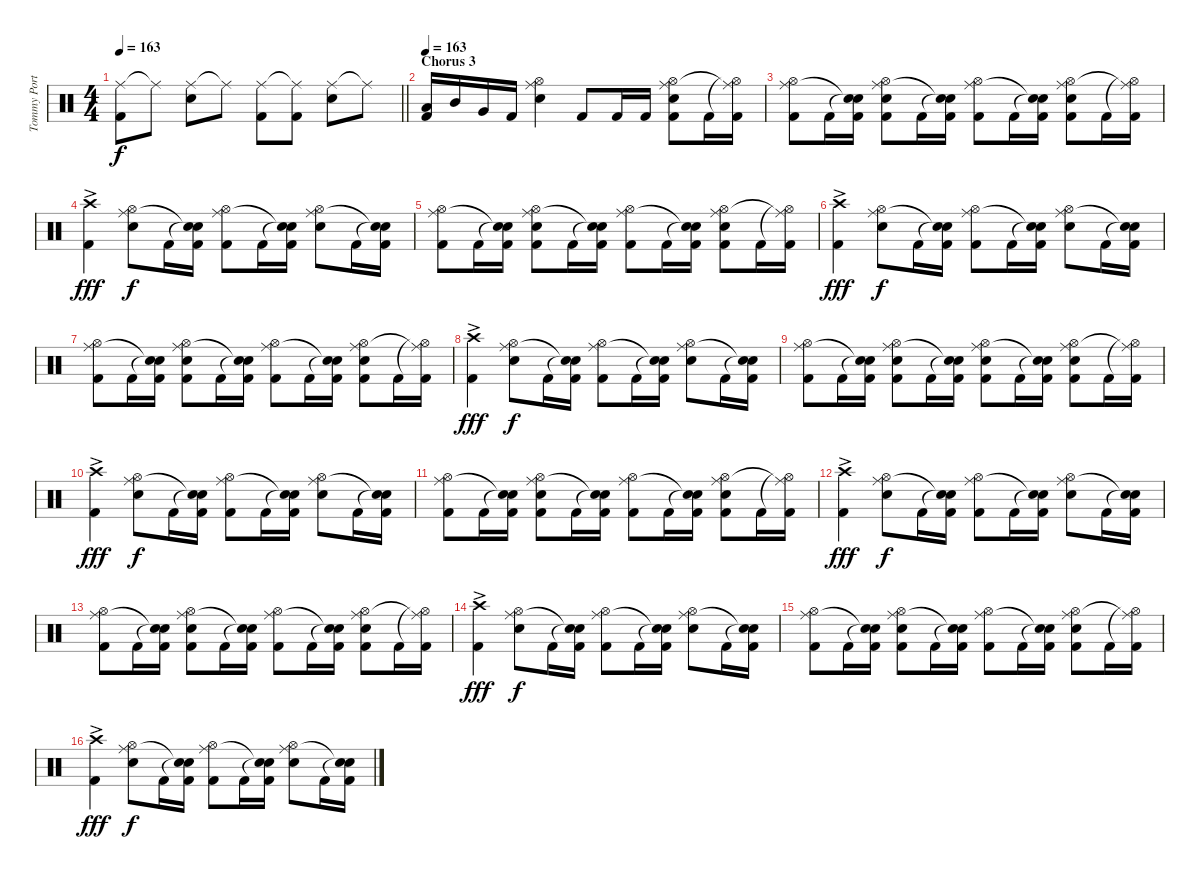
\track ("Tommy Portimo" "Tommy Port") {instrument percussion}
\staff {score}
\articulation defaults
\ts (4 4)
\tempo 163
\clef neutral
\barLineRight lightlight
\ks c
("Ride (middle)" "Kick (hit) 2").8{dy f} "Ride (middle)"{t}.8 ("Ride (middle)" "Electric Snare (hit)").8 "Ride (middle)"{t}.8 ("Ride (middle)" "Kick (hit) 2").8 ("Ride (middle)"{t} "Kick (hit) 2").8 ("Ride (middle)" "Electric Snare (hit)").8 "Ride (middle)"{t}.8 |
\section ("" "Chorus 3")
\tempo 163
("Low Tom (hit)" "Kick (hit) 2").16 "Mid Tom (hit)".16 "Very Low Tom (hit)".16 "Kick (hit) 2".16 ("Hi-Hat (open)" "Ride (middle)" "Electric Snare (hit)").4 "Kick (hit) 2".8 "Kick (hit) 2".16 "Kick (hit) 2".16 ("Hi-Hat (open)" "Ride (middle)" "Electric Snare (hit)" "Kick (hit) 2").8 "Kick (hit) 2".16 ("Hi-Hat (open)"{t} "Ride (middle)"{t} "Kick (hit) 2").16 |
("Hi-Hat (open)" "Ride (middle)" "Kick (hit) 2").8 "Kick (hit) 2".16 ("Snare (hit)"{t} "Snare (hit)"{t} "Kick (hit) 2").16 ("Hi-Hat (open)" "Ride (middle)" "Electric Snare (hit)" "Kick (hit) 2").8 "Kick (hit) 2".16 ("Snare (hit)"{t} "Snare (hit)"{t} "Kick (hit) 2").16 ("Hi-Hat (open)" "Ride (middle)" "Kick (hit) 2").8 "Kick (hit) 2".16 ("Snare (hit)"{t} "Snare (hit)"{t} "Kick (hit) 2").16 ("Hi-Hat (open)" "Ride (middle)" "Electric Snare (hit)" "Kick (hit) 2").8 "Kick (hit) 2".16 ("Hi-Hat (open)"{t} "Ride (middle)"{t} "Kick (hit) 2").16 |
("Crash high (hit)"{ac} "Kick (hit) 2").4{dy fff} ("Hi-Hat (open)" "Ride (middle)" "Electric Snare (hit)").8{dy f} "Kick (hit) 2".16 ("Snare (hit)"{t} "Snare (hit)"{t} "Kick (hit) 2").16 ("Hi-Hat (open)" "Ride (middle)" "Kick (hit) 2").8 "Kick (hit) 2".16 ("Snare (hit)"{t} "Snare (hit)"{t} "Kick (hit) 2").16 ("Hi-Hat (open)" "Ride (middle)" "Electric Snare (hit)").8 "Kick (hit) 2".16 ("Snare (hit)"{t} "Snare (hit)"{t} "Kick (hit) 2").16 |
("Hi-Hat (open)" "Ride (middle)" "Kick (hit) 2").8 "Kick (hit) 2".16 ("Snare (hit)"{t} "Snare (hit)"{t} "Kick (hit) 2").16 ("Hi-Hat (open)" "Ride (middle)" "Electric Snare (hit)" "Kick (hit) 2").8 "Kick (hit) 2".16 ("Snare (hit)"{t} "Snare (hit)"{t} "Kick (hit) 2").16 ("Hi-Hat (open)" "Ride (middle)" "Kick (hit) 2").8 "Kick (hit) 2".16 ("Snare (hit)"{t} "Snare (hit)"{t} "Kick (hit) 2").16 ("Hi-Hat (open)" "Ride (middle)" "Electric Snare (hit)" "Kick (hit) 2").8 "Kick (hit) 2".16 ("Hi-Hat (open)"{t} "Ride (middle)"{t} "Kick (hit) 2").16 |
("Crash high (hit)"{ac} "Kick (hit) 2").4{dy fff} ("Hi-Hat (open)" "Ride (middle)" "Electric Snare (hit)").8{dy f} "Kick (hit) 2".16 ("Snare (hit)"{t} "Snare (hit)"{t} "Kick (hit) 2").16 ("Hi-Hat (open)" "Ride (middle)" "Kick (hit) 2").8 "Kick (hit) 2".16 ("Snare (hit)"{t} "Snare (hit)"{t} "Kick (hit) 2").16 ("Hi-Hat (open)" "Ride (middle)" "Electric Snare (hit)").8 "Kick (hit) 2".16 ("Snare (hit)"{t} "Snare (hit)"{t} "Kick (hit) 2").16 |
("Hi-Hat (open)" "Ride (middle)" "Kick (hit) 2").8 "Kick (hit) 2".16 ("Snare (hit)"{t} "Snare (hit)"{t} "Kick (hit) 2").16 ("Hi-Hat (open)" "Ride (middle)" "Electric Snare (hit)" "Kick (hit) 2").8 "Kick (hit) 2".16 ("Snare (hit)"{t} "Snare (hit)"{t} "Kick (hit) 2").16 ("Hi-Hat (open)" "Ride (middle)" "Kick (hit) 2").8 "Kick (hit) 2".16 ("Snare (hit)"{t} "Snare (hit)"{t} "Kick (hit) 2").16 ("Hi-Hat (open)" "Ride (middle)" "Electric Snare (hit)" "Kick (hit) 2").8 "Kick (hit) 2".16 ("Hi-Hat (open)"{t} "Ride (middle)"{t} "Kick (hit) 2").16 |
("Crash high (hit)"{ac} "Kick (hit) 2").4{dy fff} ("Hi-Hat (open)" "Ride (middle)" "Electric Snare (hit)").8{dy f} "Kick (hit) 2".16 ("Snare (hit)"{t} "Snare (hit)"{t} "Kick (hit) 2").16 ("Hi-Hat (open)" "Ride (middle)" "Kick (hit) 2").8 "Kick (hit) 2".16 ("Snare (hit)"{t} "Snare (hit)"{t} "Kick (hit) 2").16 ("Hi-Hat (open)" "Ride (middle)" "Electric Snare (hit)").8 "Kick (hit) 2".16 ("Snare (hit)"{t} "Snare (hit)"{t} "Kick (hit) 2").16 |
("Hi-Hat (open)" "Ride (middle)" "Kick (hit) 2").8 "Kick (hit) 2".16 ("Snare (hit)"{t} "Snare (hit)"{t} "Kick (hit) 2").16 ("Hi-Hat (open)" "Ride (middle)" "Electric Snare (hit)" "Kick (hit) 2").8 "Kick (hit) 2".16 ("Snare (hit)"{t} "Snare (hit)"{t} "Kick (hit) 2").16 ("Hi-Hat (open)" "Ride (middle)" "Electric Snare (hit)" "Kick (hit) 2").8 "Kick (hit) 2".16 ("Snare (hit)"{t} "Snare (hit)"{t} "Kick (hit) 2").16 ("Hi-Hat (open)" "Ride (middle)" "Electric Snare (hit)" "Kick (hit) 2").8 "Kick (hit) 2".16 ("Hi-Hat (open)"{t} "Ride (middle)"{t} "Kick (hit) 2").16 |
("Crash high (hit)"{ac} "Kick (hit) 2").4{dy fff} ("Hi-Hat (open)" "Ride (middle)" "Electric Snare (hit)").8{dy f} "Kick (hit) 2".16 ("Snare (hit)"{t} "Snare (hit)"{t} "Kick (hit) 2").16 ("Hi-Hat (open)" "Ride (middle)" "Kick (hit) 2").8 "Kick (hit) 2".16 ("Snare (hit)"{t} "Snare (hit)"{t} "Kick (hit) 2").16 ("Hi-Hat (open)" "Ride (middle)" "Electric Snare (hit)").8 "Kick (hit) 2".16 ("Snare (hit)"{t} "Snare (hit)"{t} "Kick (hit) 2").16 |
("Hi-Hat (open)" "Ride (middle)" "Kick (hit) 2").8 "Kick (hit) 2".16 ("Snare (hit)"{t} "Snare (hit)"{t} "Kick (hit) 2").16 ("Hi-Hat (open)" "Ride (middle)" "Electric Snare (hit)" "Kick (hit) 2").8 "Kick (hit) 2".16 ("Snare (hit)"{t} "Snare (hit)"{t} "Kick (hit) 2").16 ("Hi-Hat (open)" "Ride (middle)" "Kick (hit) 2").8 "Kick (hit) 2".16 ("Snare (hit)"{t} "Snare (hit)"{t} "Kick (hit) 2").16 ("Hi-Hat (open)" "Ride (middle)" "Electric Snare (hit)" "Kick (hit) 2").8 "Kick (hit) 2".16 ("Hi-Hat (open)"{t} "Ride (middle)"{t} "Kick (hit) 2").16 |
("Crash high (hit)"{ac} "Kick (hit) 2").4{dy fff} ("Hi-Hat (open)" "Ride (middle)" "Electric Snare (hit)").8{dy f} "Kick (hit) 2".16 ("Snare (hit)"{t} "Snare (hit)"{t} "Kick (hit) 2").16 ("Hi-Hat (open)" "Ride (middle)" "Kick (hit) 2").8 "Kick (hit) 2".16 ("Snare (hit)"{t} "Snare (hit)"{t} "Kick (hit) 2").16 ("Hi-Hat (open)" "Ride (middle)" "Electric Snare (hit)").8 "Kick (hit) 2".16 ("Snare (hit)"{t} "Snare (hit)"{t} "Kick (hit) 2").16 |
("Hi-Hat (open)" "Ride (middle)" "Kick (hit) 2").8 "Kick (hit) 2".16 ("Snare (hit)"{t} "Snare (hit)"{t} "Kick (hit) 2").16 ("Hi-Hat (open)" "Ride (middle)" "Electric Snare (hit)" "Kick (hit) 2").8 "Kick (hit) 2".16 ("Snare (hit)"{t} "Snare (hit)"{t} "Kick (hit) 2").16 ("Hi-Hat (open)" "Ride (middle)" "Kick (hit) 2").8 "Kick (hit) 2".16 ("Snare (hit)"{t} "Snare (hit)"{t} "Kick (hit) 2").16 ("Hi-Hat (open)" "Ride (middle)" "Electric Snare (hit)" "Kick (hit) 2").8 "Kick (hit) 2".16 ("Hi-Hat (open)"{t} "Ride (middle)"{t} "Kick (hit) 2").16 |
("Crash high (hit)"{ac} "Kick (hit) 2").4{dy fff} ("Hi-Hat (open)" "Ride (middle)" "Electric Snare (hit)").8{dy f} "Kick (hit) 2".16 ("Snare (hit)"{t} "Snare (hit)"{t} "Kick (hit) 2").16 ("Hi-Hat (open)" "Ride (middle)" "Kick (hit) 2").8 "Kick (hit) 2".16 ("Snare (hit)"{t} "Snare (hit)"{t} "Kick (hit) 2").16 ("Hi-Hat (open)" "Ride (middle)" "Electric Snare (hit)").8 "Kick (hit) 2".16 ("Snare (hit)"{t} "Snare (hit)"{t} "Kick (hit) 2").16 |
("Hi-Hat (open)" "Ride (middle)" "Kick (hit) 2").8 "Kick (hit) 2".16 ("Snare (hit)"{t} "Snare (hit)"{t} "Kick (hit) 2").16 ("Hi-Hat (open)" "Ride (middle)" "Electric Snare (hit)" "Kick (hit) 2").8 "Kick (hit) 2".16 ("Snare (hit)"{t} "Snare (hit)"{t} "Kick (hit) 2").16 ("Hi-Hat (open)" "Ride (middle)" "Kick (hit) 2").8 "Kick (hit) 2".16 ("Snare (hit)"{t} "Snare (hit)"{t} "Kick (hit) 2").16 ("Hi-Hat (open)" "Ride (middle)" "Electric Snare (hit)" "Kick (hit) 2").8 "Kick (hit) 2".16 ("Hi-Hat (open)"{t} "Ride (middle)"{t} "Kick (hit) 2").16 |
("Crash high (hit)"{ac} "Kick (hit) 2").4{dy fff} ("Hi-Hat (open)" "Ride (middle)" "Electric Snare (hit)").8{dy f} "Kick (hit) 2".16 ("Snare (hit)"{t} "Snare (hit)"{t} "Kick (hit) 2").16 ("Hi-Hat (open)" "Ride (middle)" "Kick (hit) 2").8 "Kick (hit) 2".16 ("Snare (hit)"{t} "Snare (hit)"{t} "Kick (hit) 2").16 ("Hi-Hat (open)" "Ride (middle)" "Electric Snare (hit)").8 "Kick (hit) 2".16 ("Snare (hit)"{t} "Snare (hit)"{t} "Kick (hit) 2").16
